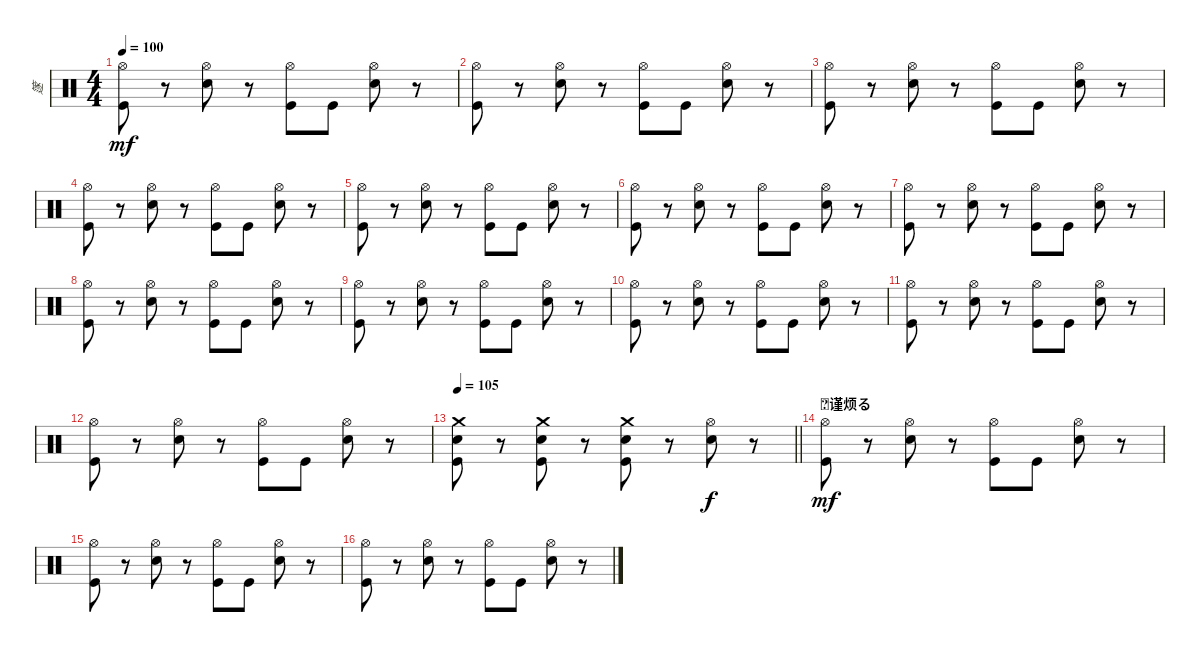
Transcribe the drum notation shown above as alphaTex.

\track ("篴" "篴") {instrument percussion}
\staff {score}
\articulation defaults
\ts (4 4)
\tempo 100
\clef neutral
\ks c
("Hi-Hat (open)" "Kick (hit)").8{dy mf} r.8 ("Hi-Hat (open)" "Snare (hit) 2").8 r.8 ("Hi-Hat (open)" "Kick (hit)").8 "Kick (hit)".8 ("Hi-Hat (open)" "Snare (hit) 2").8 r.8 |
("Hi-Hat (open)" "Kick (hit)").8 r.8 ("Hi-Hat (open)" "Snare (hit) 2").8 r.8 ("Hi-Hat (open)" "Kick (hit)").8 "Kick (hit)".8 ("Hi-Hat (open)" "Snare (hit) 2").8 r.8 |
("Hi-Hat (open)" "Kick (hit)").8 r.8 ("Hi-Hat (open)" "Snare (hit) 2").8 r.8 ("Hi-Hat (open)" "Kick (hit)").8 "Kick (hit)".8 ("Hi-Hat (open)" "Snare (hit) 2").8 r.8 |
("Hi-Hat (open)" "Kick (hit)").8 r.8 ("Hi-Hat (open)" "Snare (hit) 2").8 r.8 ("Hi-Hat (open)" "Kick (hit)").8 "Kick (hit)".8 ("Hi-Hat (open)" "Snare (hit) 2").8 r.8 |
("Hi-Hat (open)" "Kick (hit)").8 r.8 ("Hi-Hat (open)" "Snare (hit) 2").8 r.8 ("Hi-Hat (open)" "Kick (hit)").8 "Kick (hit)".8 ("Hi-Hat (open)" "Snare (hit) 2").8 r.8 |
("Hi-Hat (open)" "Kick (hit)").8 r.8 ("Hi-Hat (open)" "Snare (hit) 2").8 r.8 ("Hi-Hat (open)" "Kick (hit)").8 "Kick (hit)".8 ("Hi-Hat (open)" "Snare (hit) 2").8 r.8 |
("Hi-Hat (open)" "Kick (hit)").8 r.8 ("Hi-Hat (open)" "Snare (hit) 2").8 r.8 ("Hi-Hat (open)" "Kick (hit)").8 "Kick (hit)".8 ("Hi-Hat (open)" "Snare (hit) 2").8 r.8 |
("Hi-Hat (open)" "Kick (hit)").8 r.8 ("Hi-Hat (open)" "Snare (hit) 2").8 r.8 ("Hi-Hat (open)" "Kick (hit)").8 "Kick (hit)".8 ("Hi-Hat (open)" "Snare (hit) 2").8 r.8 |
("Hi-Hat (open)" "Kick (hit)").8 r.8 ("Hi-Hat (open)" "Snare (hit) 2").8 r.8 ("Hi-Hat (open)" "Kick (hit)").8 "Kick (hit)".8 ("Hi-Hat (open)" "Snare (hit) 2").8 r.8 |
("Hi-Hat (open)" "Kick (hit)").8 r.8 ("Hi-Hat (open)" "Snare (hit) 2").8 r.8 ("Hi-Hat (open)" "Kick (hit)").8 "Kick (hit)".8 ("Hi-Hat (open)" "Snare (hit) 2").8 r.8 |
("Hi-Hat (open)" "Kick (hit)").8 r.8 ("Hi-Hat (open)" "Snare (hit) 2").8 r.8 ("Hi-Hat (open)" "Kick (hit)").8 "Kick (hit)".8 ("Hi-Hat (open)" "Snare (hit) 2").8 r.8 |
("Hi-Hat (open)" "Kick (hit)").8 r.8 ("Hi-Hat (open)" "Snare (hit) 2").8 r.8 ("Hi-Hat (open)" "Kick (hit)").8 "Kick (hit)".8 ("Hi-Hat (open)" "Snare (hit) 2").8 r.8 |
\tempo 105
\barLineRight lightlight
("Crash medium (hit)" "Snare (hit) 2" "Kick (hit)").8 r.8 ("Crash medium (hit)" "Snare (hit) 2" "Kick (hit)").8 r.8 ("Crash medium (hit)" "Snare (hit) 2" "Kick (hit)").8 r.8 ("Hi-Hat (open)" "Snare (hit) 2").8{dy f} r.8 |
\section ("" "谨烦る  ")
("Hi-Hat (open)" "Kick (hit)").8{dy mf} r.8 ("Hi-Hat (open)" "Snare (hit) 2").8 r.8 ("Hi-Hat (open)" "Kick (hit)").8 "Kick (hit)".8 ("Hi-Hat (open)" "Snare (hit) 2").8 r.8 |
("Hi-Hat (open)" "Kick (hit)").8 r.8 ("Hi-Hat (open)" "Snare (hit) 2").8 r.8 ("Hi-Hat (open)" "Kick (hit)").8 "Kick (hit)".8 ("Hi-Hat (open)" "Snare (hit) 2").8 r.8 |
("Hi-Hat (open)" "Kick (hit)").8 r.8 ("Hi-Hat (open)" "Snare (hit) 2").8 r.8 ("Hi-Hat (open)" "Kick (hit)").8 "Kick (hit)".8 ("Hi-Hat (open)" "Snare (hit) 2").8 r.8
